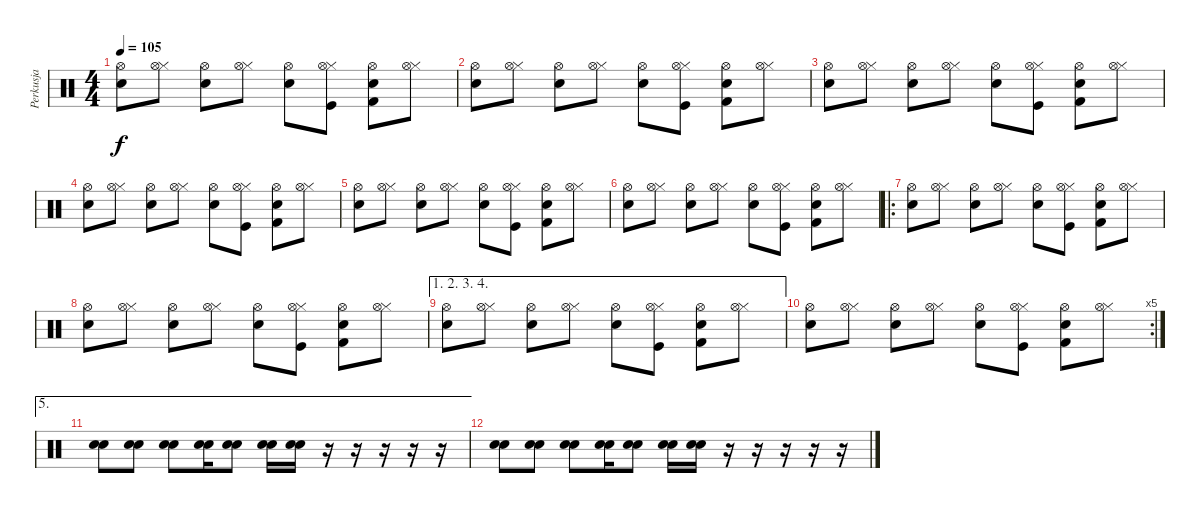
\track ("Perkusja" "Perkusja") {instrument percussion}
\staff {score}
\articulation defaults
\ts (4 4)
\tempo 105
\clef neutral
\ks c
("Snare (hit) 2" "Hi-Hat (open)").8{dy f} ("Hi-Hat (closed)" "Hi-Hat (open)").8 ("Snare (hit) 2" "Hi-Hat (open)").8 ("Hi-Hat (closed)" "Hi-Hat (open)").8 ("Snare (hit) 2" "Hi-Hat (open)").8 ("Kick (hit)" "Hi-Hat (closed)" "Hi-Hat (open)").8 ("Kick (hit) 2" "Snare (hit) 2" "Hi-Hat (open)").8 ("Hi-Hat (closed)" "Hi-Hat (open)").8 |
("Snare (hit) 2" "Hi-Hat (open)").8 ("Hi-Hat (closed)" "Hi-Hat (open)").8 ("Snare (hit) 2" "Hi-Hat (open)").8 ("Hi-Hat (closed)" "Hi-Hat (open)").8 ("Snare (hit) 2" "Hi-Hat (open)").8 ("Kick (hit)" "Hi-Hat (closed)" "Hi-Hat (open)").8 ("Kick (hit) 2" "Snare (hit) 2" "Hi-Hat (open)").8 ("Hi-Hat (closed)" "Hi-Hat (open)").8 |
("Snare (hit) 2" "Hi-Hat (open)").8 ("Hi-Hat (closed)" "Hi-Hat (open)").8 ("Snare (hit) 2" "Hi-Hat (open)").8 ("Hi-Hat (closed)" "Hi-Hat (open)").8 ("Snare (hit) 2" "Hi-Hat (open)").8 ("Kick (hit)" "Hi-Hat (closed)" "Hi-Hat (open)").8 ("Kick (hit) 2" "Snare (hit) 2" "Hi-Hat (open)").8 ("Hi-Hat (closed)" "Hi-Hat (open)").8 |
("Snare (hit) 2" "Hi-Hat (open)").8 ("Hi-Hat (closed)" "Hi-Hat (open)").8 ("Snare (hit) 2" "Hi-Hat (open)").8 ("Hi-Hat (closed)" "Hi-Hat (open)").8 ("Snare (hit) 2" "Hi-Hat (open)").8 ("Kick (hit)" "Hi-Hat (closed)" "Hi-Hat (open)").8 ("Kick (hit) 2" "Snare (hit) 2" "Hi-Hat (open)").8 ("Hi-Hat (closed)" "Hi-Hat (open)").8 |
("Snare (hit) 2" "Hi-Hat (open)").8 ("Hi-Hat (closed)" "Hi-Hat (open)").8 ("Snare (hit) 2" "Hi-Hat (open)").8 ("Hi-Hat (closed)" "Hi-Hat (open)").8 ("Snare (hit) 2" "Hi-Hat (open)").8 ("Kick (hit)" "Hi-Hat (closed)" "Hi-Hat (open)").8 ("Kick (hit) 2" "Snare (hit) 2" "Hi-Hat (open)").8 ("Hi-Hat (closed)" "Hi-Hat (open)").8 |
("Snare (hit) 2" "Hi-Hat (open)").8 ("Hi-Hat (closed)" "Hi-Hat (open)").8 ("Snare (hit) 2" "Hi-Hat (open)").8 ("Hi-Hat (closed)" "Hi-Hat (open)").8 ("Snare (hit) 2" "Hi-Hat (open)").8 ("Kick (hit)" "Hi-Hat (closed)" "Hi-Hat (open)").8 ("Kick (hit) 2" "Snare (hit) 2" "Hi-Hat (open)").8 ("Hi-Hat (closed)" "Hi-Hat (open)").8 |
\ro
("Snare (hit) 2" "Hi-Hat (open)").8 ("Hi-Hat (closed)" "Hi-Hat (open)").8 ("Snare (hit) 2" "Hi-Hat (open)").8 ("Hi-Hat (closed)" "Hi-Hat (open)").8 ("Snare (hit) 2" "Hi-Hat (open)").8 ("Kick (hit)" "Hi-Hat (closed)" "Hi-Hat (open)").8 ("Kick (hit) 2" "Snare (hit) 2" "Hi-Hat (open)").8 ("Hi-Hat (closed)" "Hi-Hat (open)").8 |
("Snare (hit) 2" "Hi-Hat (open)").8 ("Hi-Hat (closed)" "Hi-Hat (open)").8 ("Snare (hit) 2" "Hi-Hat (open)").8 ("Hi-Hat (closed)" "Hi-Hat (open)").8 ("Snare (hit) 2" "Hi-Hat (open)").8 ("Kick (hit)" "Hi-Hat (closed)" "Hi-Hat (open)").8 ("Kick (hit) 2" "Snare (hit) 2" "Hi-Hat (open)").8 ("Hi-Hat (closed)" "Hi-Hat (open)").8 |
\ae (1 2 3 4)
("Snare (hit) 2" "Hi-Hat (open)").8 ("Hi-Hat (closed)" "Hi-Hat (open)").8 ("Snare (hit) 2" "Hi-Hat (open)").8 ("Hi-Hat (closed)" "Hi-Hat (open)").8 ("Snare (hit) 2" "Hi-Hat (open)").8 ("Kick (hit)" "Hi-Hat (closed)" "Hi-Hat (open)").8 ("Kick (hit) 2" "Snare (hit) 2" "Hi-Hat (open)").8 ("Hi-Hat (closed)" "Hi-Hat (open)").8 |
\rc 5
("Snare (hit) 2" "Hi-Hat (open)").8 ("Hi-Hat (closed)" "Hi-Hat (open)").8 ("Snare (hit) 2" "Hi-Hat (open)").8 ("Hi-Hat (closed)" "Hi-Hat (open)").8 ("Snare (hit) 2" "Hi-Hat (open)").8 ("Kick (hit)" "Hi-Hat (closed)" "Hi-Hat (open)").8 ("Kick (hit) 2" "Snare (hit) 2" "Hi-Hat (open)").8 ("Hi-Hat (closed)" "Hi-Hat (open)").8 |
\ae 5
("Electric Snare (hit)" "Snare (hit) 2").8 ("Electric Snare (hit)" "Snare (hit) 2").8 ("Electric Snare (hit)" "Snare (hit) 2").8 ("Electric Snare (hit)" "Snare (hit) 2").16 ("Electric Snare (hit)" "Snare (hit) 2").8 ("Electric Snare (hit)" "Snare (hit) 2").16 ("Electric Snare (hit)" "Snare (hit) 2").16 r.16 r.16 r.16 r.16 r.16 |
("Electric Snare (hit)" "Snare (hit) 2").8 ("Electric Snare (hit)" "Snare (hit) 2").8 ("Electric Snare (hit)" "Snare (hit) 2").8 ("Electric Snare (hit)" "Snare (hit) 2").16 ("Electric Snare (hit)" "Snare (hit) 2").8 ("Electric Snare (hit)" "Snare (hit) 2").16 ("Electric Snare (hit)" "Snare (hit) 2").16 r.16 r.16 r.16 r.16 r.16
